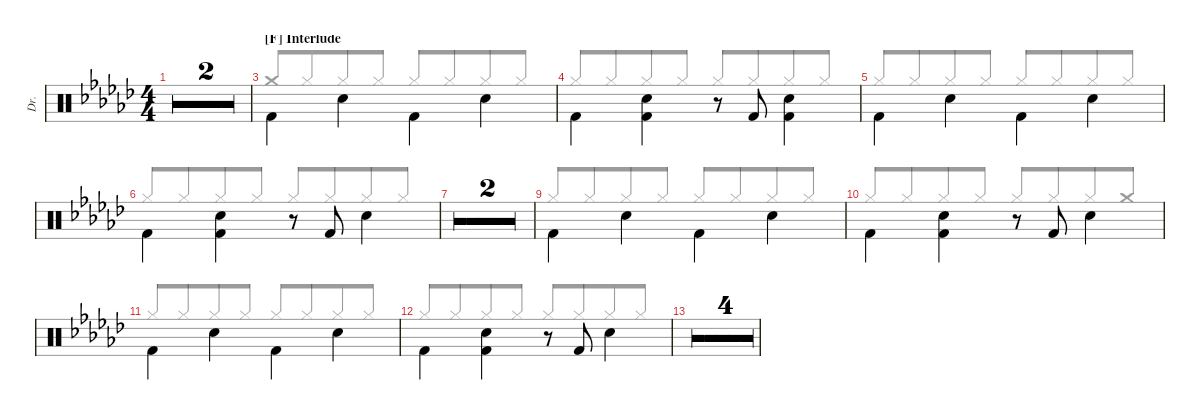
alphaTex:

\defaultSystemsLayout 4
\hideDynamics
\bracketExtendMode groupsimilarinstruments
\otherSystemsTrackNameOrientation horizontal
\track ("Drums" "Dr.") {multiBarRest instrument percussion}
\staff {score}
\articulation defaults
\voice
\ts (4 4)
\tempo 139
\clef neutral
\simile firstofdouble
\ks gb
|
\simile secondofdouble
|
\section ("F" "Interlude")
\simile none "Kick (hit) 2"{acc forcenatural}.4{beam Down} "Snare (hit) 2"{acc forcenatural}.4{beam Down} "Kick (hit) 2"{acc forcenatural}.4{beam Down} "Snare (hit) 2"{acc forcenatural}.4{beam Down}
|
"Kick (hit) 2"{acc forcenatural}.4{beam Down} ("Snare (hit) 2"{acc forcenatural} "Kick (hit) 2"{acc forcenatural}).4{beam Down} r.8{beam Up} "Kick (hit) 2"{acc forcenatural}.8{beam Down} ("Kick (hit) 2"{acc forcenatural} "Snare (hit) 2"{acc forcenatural}).4{beam Down} |
"Kick (hit) 2"{acc forcenatural}.4{beam Down} "Snare (hit) 2"{acc forcenatural}.4{beam Down} "Kick (hit) 2"{acc forcenatural}.4{beam Down} "Snare (hit) 2"{acc forcenatural}.4{beam Down} |
"Kick (hit) 2"{acc forcenatural}.4{beam Down} ("Snare (hit) 2"{acc forcenatural} "Kick (hit) 2"{acc forcenatural}).4{beam Down} r.8{beam Up} "Kick (hit) 2"{acc forcenatural}.8{beam Down} "Snare (hit) 2"{acc forcenatural}.4{beam Down} |
\simile firstofdouble
|
\simile secondofdouble
|
\simile none "Kick (hit) 2"{acc forcenatural}.4{beam Down} "Snare (hit) 2"{acc forcenatural}.4{beam Down} "Kick (hit) 2"{acc forcenatural}.4{beam Down} "Snare (hit) 2"{acc forcenatural}.4{beam Down}
|
"Kick (hit) 2"{acc forcenatural}.4{beam Down} ("Snare (hit) 2"{acc forcenatural} "Kick (hit) 2"{acc forcenatural}).4{beam Down} r.8{beam Up} "Kick (hit) 2"{acc forcenatural}.8{beam Down} "Snare (hit) 2"{acc forcenatural}.4{beam Down} |
"Kick (hit) 2"{acc forcenatural}.4{beam Down} "Snare (hit) 2"{acc forcenatural}.4{beam Down} "Kick (hit) 2"{acc forcenatural}.4{beam Down} "Snare (hit) 2"{acc forcenatural}.4{beam Down} |
"Kick (hit) 2"{acc forcenatural}.4{beam Down} ("Snare (hit) 2"{acc forcenatural} "Kick (hit) 2"{acc forcenatural}).4{beam Down} r.8{beam Up} "Kick (hit) 2"{acc forcenatural}.8{beam Down} "Snare (hit) 2"{acc forcenatural}.4{beam Down} |
\simile firstofdouble
|
\simile secondofdouble
|
\simile firstofdouble
|
\simile secondofdouble
\voice
\clef neutral
\ottava regular
\simile firstofdouble
\ks gb
|
\simile secondofdouble
|
\simile none "Crash medium (hit)"{acc forcenatural}.8{beam Up} "Hi-Hat (closed)"{acc forcenatural}.8{beam Up beam merge} "Hi-Hat (closed)"{acc forcenatural}.8{beam Up} "Hi-Hat (closed)"{acc forcenatural}.8{beam Up} "Hi-Hat (closed)"{acc forcenatural}.8{beam Up} "Hi-Hat (closed)"{acc forcenatural}.8{beam Up beam merge} "Hi-Hat (closed)"{acc forcenatural}.8{beam Up} "Hi-Hat (closed)"{acc forcenatural}.8{beam Up}
|
"Hi-Hat (closed)"{acc forcenatural}.8{beam Up} "Hi-Hat (closed)"{acc forcenatural}.8{beam Up beam merge} "Hi-Hat (closed)"{acc forcenatural}.8{beam Up} "Hi-Hat (closed)"{acc forcenatural}.8{beam Up} "Hi-Hat (closed)"{acc forcenatural}.8{beam Up beam merge} "Hi-Hat (closed)"{acc forcenatural}.8{beam Up beam merge} "Hi-Hat (closed)"{acc forcenatural}.8{beam Up beam merge} "Hi-Hat (closed)"{acc forcenatural}.8{beam Up} |
"Hi-Hat (closed)"{acc forcenatural}.8{beam Up} "Hi-Hat (closed)"{acc forcenatural}.8{beam Up beam merge} "Hi-Hat (closed)"{acc forcenatural}.8{beam Up} "Hi-Hat (closed)"{acc forcenatural}.8{beam Up} "Hi-Hat (closed)"{acc forcenatural}.8{beam Up} "Hi-Hat (closed)"{acc forcenatural}.8{beam Up beam merge} "Hi-Hat (closed)"{acc forcenatural}.8{beam Up} "Hi-Hat (closed)"{acc forcenatural}.8{beam Up} |
"Hi-Hat (closed)"{acc forcenatural}.8{beam Up beam merge} "Hi-Hat (closed)"{acc forcenatural}.8{beam Up beam merge} "Hi-Hat (closed)"{acc forcenatural}.8{beam Up} "Hi-Hat (closed)"{acc forcenatural}.8{beam Up} "Hi-Hat (closed)"{acc forcenatural}.8{beam Up} "Hi-Hat (closed)"{acc forcenatural}.8{beam Up beam merge} "Hi-Hat (closed)"{acc forcenatural}.8{beam Up beam merge} "Hi-Hat (closed)"{acc forcenatural}.8{beam Up} |
\simile firstofdouble
|
\simile secondofdouble
|
\simile none "Hi-Hat (closed)"{acc forcenatural}.8{beam Up} "Hi-Hat (closed)"{acc forcenatural}.8{beam Up beam merge} "Hi-Hat (closed)"{acc forcenatural}.8{beam Up} "Hi-Hat (closed)"{acc forcenatural}.8{beam Up} "Hi-Hat (closed)"{acc forcenatural}.8{beam Up} "Hi-Hat (closed)"{acc forcenatural}.8{beam Up beam merge} "Hi-Hat (closed)"{acc forcenatural}.8{beam Up} "Hi-Hat (closed)"{acc forcenatural}.8{beam Up}
|
"Hi-Hat (closed)"{acc forcenatural}.8{beam Up beam merge} "Hi-Hat (closed)"{acc forcenatural}.8{beam Up beam merge} "Hi-Hat (closed)"{acc forcenatural}.8{beam Up} "Hi-Hat (closed)"{acc forcenatural}.8{beam Up} "Hi-Hat (closed)"{acc forcenatural}.8{beam Up} "Hi-Hat (closed)"{acc forcenatural}.8{beam Up beam merge} "Hi-Hat (closed)"{acc forcenatural}.8{beam Up beam merge} "Crash medium (hit)"{acc forcenatural}.8{beam Up} |
"Hi-Hat (closed)"{acc forcenatural}.8{beam Up} "Hi-Hat (closed)"{acc forcenatural}.8{beam Up beam merge} "Hi-Hat (closed)"{acc forcenatural}.8{beam Up} "Hi-Hat (closed)"{acc forcenatural}.8{beam Up} "Hi-Hat (closed)"{acc forcenatural}.8{beam Up} "Hi-Hat (closed)"{acc forcenatural}.8{beam Up beam merge} "Hi-Hat (closed)"{acc forcenatural}.8{beam Up} "Hi-Hat (closed)"{acc forcenatural}.8{beam Up} |
"Hi-Hat (closed)"{acc forcenatural}.8{beam Up} "Hi-Hat (closed)"{acc forcenatural}.8{beam Up beam merge} "Hi-Hat (closed)"{acc forcenatural}.8{beam Up} "Hi-Hat (closed)"{acc forcenatural}.8{beam Up} "Hi-Hat (closed)"{acc forcenatural}.8{beam Up beam merge} "Hi-Hat (closed)"{acc forcenatural}.8{beam Up beam merge} "Hi-Hat (closed)"{acc forcenatural}.8{beam Up beam merge} "Hi-Hat (closed)"{acc forcenatural}.8{beam Up} |
\simile firstofdouble
|
\simile secondofdouble
|
\simile firstofdouble
|
\simile secondofdouble
